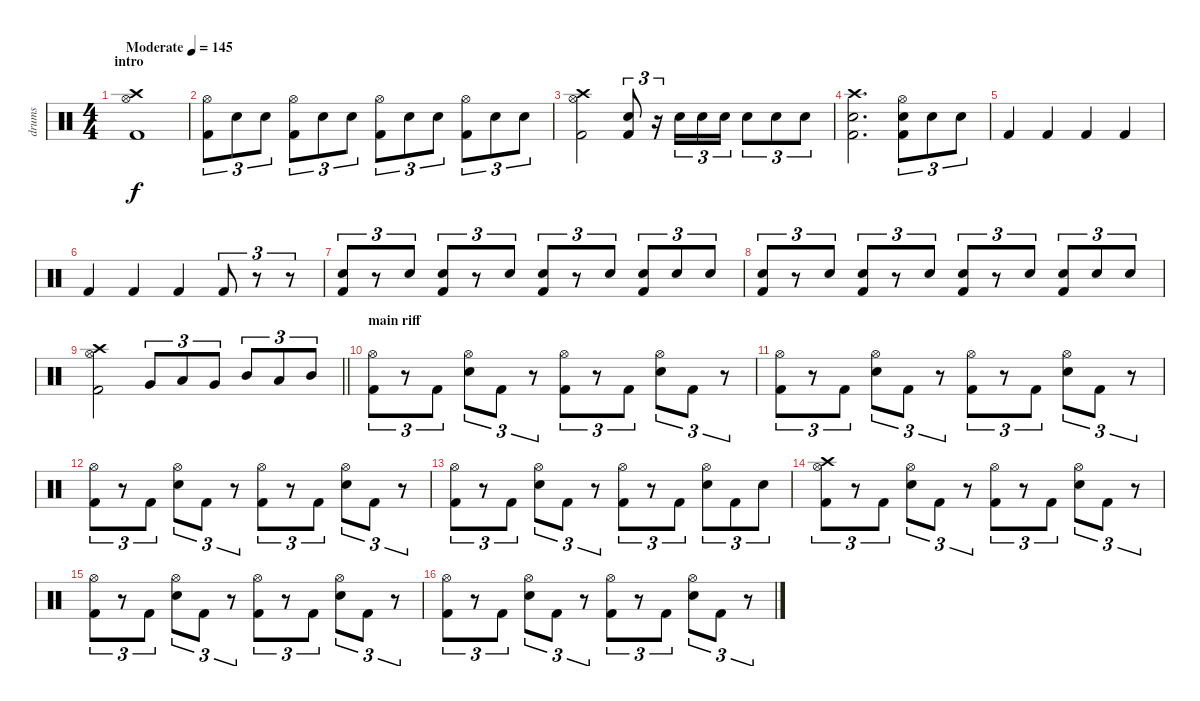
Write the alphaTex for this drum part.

\track ("drums" "drums") {instrument percussion}
\staff {score}
\articulation defaults
\ts (4 4)
\section ("" "intro")
\tempo (145 "Moderate")
\clef neutral
\ks c
("Hi-Hat (open)" "Crash high (hit)" "Kick (hit) 2").1{dy f} |
("Hi-Hat (open)" "Kick (hit) 2").8{tu (3 2)} "Snare (hit) 2".8{tu (3 2)} "Snare (hit) 2".8{tu (3 2)} ("Hi-Hat (open)" "Kick (hit) 2").8{tu (3 2)} "Snare (hit) 2".8{tu (3 2)} "Snare (hit) 2".8{tu (3 2)} ("Hi-Hat (open)" "Kick (hit) 2").8{tu (3 2)} "Snare (hit) 2".8{tu (3 2)} "Snare (hit) 2".8{tu (3 2)} ("Hi-Hat (open)" "Kick (hit) 2").8{tu (3 2)} "Snare (hit) 2".8{tu (3 2)} "Snare (hit) 2".8{tu (3 2)} |
("Hi-Hat (open)" "Crash high (hit)" "Kick (hit) 2").2 ("Snare (hit) 2" "Kick (hit) 2").8{tu (3 2)} r.16{tu (3 2)} "Snare (hit) 2".16{tu (3 2)} "Snare (hit) 2".16{tu (3 2)} "Snare (hit) 2".16{tu (3 2)} "Snare (hit) 2".8{tu (3 2)} "Snare (hit) 2".8{tu (3 2)} "Snare (hit) 2".8{tu (3 2)} |
("Crash high (hit)" "Snare (hit) 2" "Kick (hit) 2").2{d} ("Hi-Hat (open)" "Snare (hit) 2" "Kick (hit) 2").8{tu (3 2)} "Snare (hit) 2".8{tu (3 2)} "Snare (hit) 2".8{tu (3 2)} |
"Kick (hit) 2".4 "Kick (hit) 2".4 "Kick (hit) 2".4 "Kick (hit) 2".4 |
"Kick (hit) 2".4 "Kick (hit) 2".4 "Kick (hit) 2".4 "Kick (hit) 2".8{tu (3 2)} r.8{tu (3 2)} r.8{tu (3 2)} |
("Snare (hit) 2" "Kick (hit) 2").8{tu (3 2)} r.8{tu (3 2)} "Snare (hit) 2".8{tu (3 2)} ("Snare (hit) 2" "Kick (hit) 2").8{tu (3 2)} r.8{tu (3 2)} "Snare (hit) 2".8{tu (3 2)} ("Snare (hit) 2" "Kick (hit) 2").8{tu (3 2)} r.8{tu (3 2)} "Snare (hit) 2".8{tu (3 2)} ("Snare (hit) 2" "Kick (hit) 2").8{tu (3 2)} "Snare (hit) 2".8{tu (3 2)} "Snare (hit) 2".8{tu (3 2)} |
("Snare (hit) 2" "Kick (hit) 2").8{tu (3 2)} r.8{tu (3 2)} "Snare (hit) 2".8{tu (3 2)} ("Snare (hit) 2" "Kick (hit) 2").8{tu (3 2)} r.8{tu (3 2)} "Snare (hit) 2".8{tu (3 2)} ("Snare (hit) 2" "Kick (hit) 2").8{tu (3 2)} r.8{tu (3 2)} "Snare (hit) 2".8{tu (3 2)} ("Snare (hit) 2" "Kick (hit) 2").8{tu (3 2)} "Snare (hit) 2".8{tu (3 2)} "Snare (hit) 2".8{tu (3 2)} |
\barLineRight lightlight
("Hi-Hat (open)" "Crash high (hit)" "Kick (hit) 2").2 "Very Low Tom (hit)".8{tu (3 2)} "Low Tom (hit)".8{tu (3 2)} "Very Low Tom (hit)".8{tu (3 2)} "Mid Tom (hit)".8{tu (3 2)} "Low Tom (hit)".8{tu (3 2)} "Mid Tom (hit)".8{tu (3 2)} |
\section ("" "main riff")
("Hi-Hat (open)" "Kick (hit) 2").8{tu (3 2)} r.8{tu (3 2)} "Kick (hit) 2".8{tu (3 2)} ("Snare (hit) 2" "Hi-Hat (open)").8{tu (3 2)} "Kick (hit) 2".8{tu (3 2)} r.8{tu (3 2)} ("Hi-Hat (open)" "Kick (hit) 2").8{tu (3 2)} r.8{tu (3 2)} "Kick (hit) 2".8{tu (3 2)} ("Snare (hit) 2" "Hi-Hat (open)").8{tu (3 2)} "Kick (hit) 2".8{tu (3 2)} r.8{tu (3 2)} |
("Hi-Hat (open)" "Kick (hit) 2").8{tu (3 2)} r.8{tu (3 2)} "Kick (hit) 2".8{tu (3 2)} ("Snare (hit) 2" "Hi-Hat (open)").8{tu (3 2)} "Kick (hit) 2".8{tu (3 2)} r.8{tu (3 2)} ("Hi-Hat (open)" "Kick (hit) 2").8{tu (3 2)} r.8{tu (3 2)} "Kick (hit) 2".8{tu (3 2)} ("Snare (hit) 2" "Hi-Hat (open)").8{tu (3 2)} "Kick (hit) 2".8{tu (3 2)} r.8{tu (3 2)} |
("Hi-Hat (open)" "Kick (hit) 2").8{tu (3 2)} r.8{tu (3 2)} "Kick (hit) 2".8{tu (3 2)} ("Snare (hit) 2" "Hi-Hat (open)").8{tu (3 2)} "Kick (hit) 2".8{tu (3 2)} r.8{tu (3 2)} ("Hi-Hat (open)" "Kick (hit) 2").8{tu (3 2)} r.8{tu (3 2)} "Kick (hit) 2".8{tu (3 2)} ("Snare (hit) 2" "Hi-Hat (open)").8{tu (3 2)} "Kick (hit) 2".8{tu (3 2)} r.8{tu (3 2)} |
("Hi-Hat (open)" "Kick (hit) 2").8{tu (3 2)} r.8{tu (3 2)} "Kick (hit) 2".8{tu (3 2)} ("Snare (hit) 2" "Hi-Hat (open)").8{tu (3 2)} "Kick (hit) 2".8{tu (3 2)} r.8{tu (3 2)} ("Hi-Hat (open)" "Kick (hit) 2").8{tu (3 2)} r.8{tu (3 2)} "Kick (hit) 2".8{tu (3 2)} ("Snare (hit) 2" "Hi-Hat (open)").8{tu (3 2)} "Kick (hit) 2".8{tu (3 2)} "Snare (hit) 2".8{tu (3 2)} |
("Crash high (hit)" "Hi-Hat (open)" "Kick (hit) 2").8{tu (3 2)} r.8{tu (3 2)} "Kick (hit) 2".8{tu (3 2)} ("Snare (hit) 2" "Hi-Hat (open)").8{tu (3 2)} "Kick (hit) 2".8{tu (3 2)} r.8{tu (3 2)} ("Hi-Hat (open)" "Kick (hit) 2").8{tu (3 2)} r.8{tu (3 2)} "Kick (hit) 2".8{tu (3 2)} ("Snare (hit) 2" "Hi-Hat (open)").8{tu (3 2)} "Kick (hit) 2".8{tu (3 2)} r.8{tu (3 2)} |
("Hi-Hat (open)" "Kick (hit) 2").8{tu (3 2)} r.8{tu (3 2)} "Kick (hit) 2".8{tu (3 2)} ("Snare (hit) 2" "Hi-Hat (open)").8{tu (3 2)} "Kick (hit) 2".8{tu (3 2)} r.8{tu (3 2)} ("Hi-Hat (open)" "Kick (hit) 2").8{tu (3 2)} r.8{tu (3 2)} "Kick (hit) 2".8{tu (3 2)} ("Snare (hit) 2" "Hi-Hat (open)").8{tu (3 2)} "Kick (hit) 2".8{tu (3 2)} r.8{tu (3 2)} |
("Hi-Hat (open)" "Kick (hit) 2").8{tu (3 2)} r.8{tu (3 2)} "Kick (hit) 2".8{tu (3 2)} ("Snare (hit) 2" "Hi-Hat (open)").8{tu (3 2)} "Kick (hit) 2".8{tu (3 2)} r.8{tu (3 2)} ("Hi-Hat (open)" "Kick (hit) 2").8{tu (3 2)} r.8{tu (3 2)} "Kick (hit) 2".8{tu (3 2)} ("Snare (hit) 2" "Hi-Hat (open)").8{tu (3 2)} "Kick (hit) 2".8{tu (3 2)} r.8{tu (3 2)}
